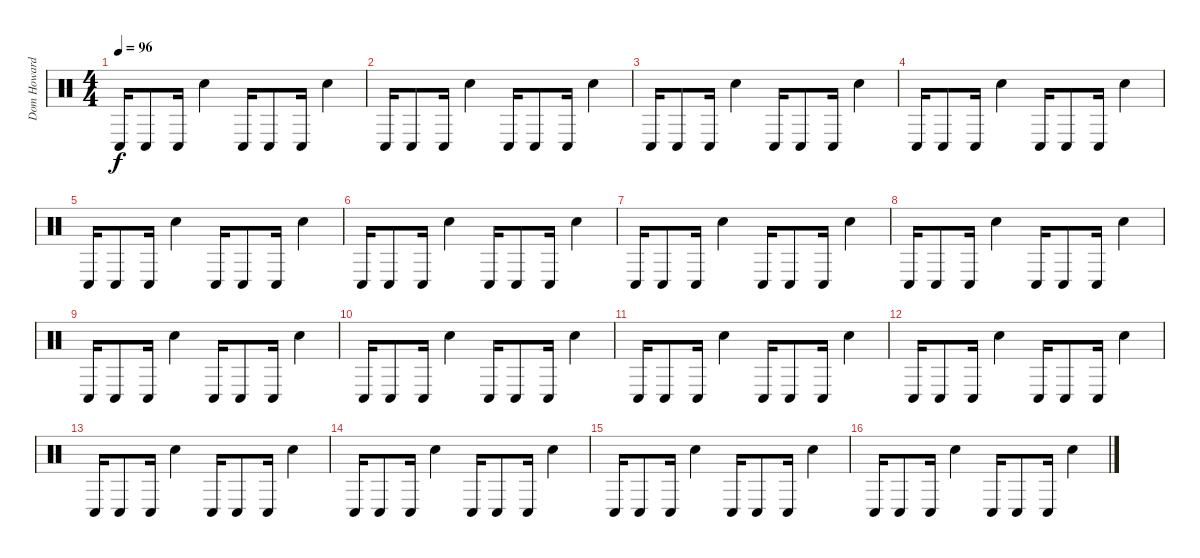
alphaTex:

\track ("Dom Howard" "Dom Howard") {instrument percussion}
\staff {score}
\articulation defaults
\ts (4 4)
\tempo 96
\clef neutral
\ks c "Conga low (hit)".16{dy f volume 9} "Conga low (hit)".8 "Conga low (hit)".16 "Metronome (bell)".4 "Conga low (hit)".16 "Conga low (hit)".8 "Conga low (hit)".16 "Metronome (bell)".4
|
"Conga low (hit)".16 "Conga low (hit)".8 "Conga low (hit)".16 "Metronome (bell)".4 "Conga low (hit)".16 "Conga low (hit)".8 "Conga low (hit)".16 "Metronome (bell)".4 |
"Conga low (hit)".16 "Conga low (hit)".8 "Conga low (hit)".16 "Metronome (bell)".4 "Conga low (hit)".16 "Conga low (hit)".8 "Conga low (hit)".16 "Metronome (bell)".4 |
"Conga low (hit)".16 "Conga low (hit)".8 "Conga low (hit)".16 "Metronome (bell)".4 "Conga low (hit)".16 "Conga low (hit)".8 "Conga low (hit)".16 "Metronome (bell)".4 |
"Conga low (hit)".16 "Conga low (hit)".8 "Conga low (hit)".16 "Metronome (bell)".4 "Conga low (hit)".16 "Conga low (hit)".8 "Conga low (hit)".16 "Metronome (bell)".4 |
"Conga low (hit)".16 "Conga low (hit)".8 "Conga low (hit)".16 "Metronome (bell)".4 "Conga low (hit)".16 "Conga low (hit)".8 "Conga low (hit)".16 "Metronome (bell)".4 |
"Conga low (hit)".16 "Conga low (hit)".8 "Conga low (hit)".16 "Metronome (bell)".4 "Conga low (hit)".16 "Conga low (hit)".8 "Conga low (hit)".16 "Metronome (bell)".4 |
"Conga low (hit)".16 "Conga low (hit)".8 "Conga low (hit)".16 "Metronome (bell)".4 "Conga low (hit)".16 "Conga low (hit)".8 "Conga low (hit)".16 "Metronome (bell)".4 |
"Conga low (hit)".16 "Conga low (hit)".8 "Conga low (hit)".16 "Metronome (bell)".4 "Conga low (hit)".16 "Conga low (hit)".8 "Conga low (hit)".16 "Metronome (bell)".4 |
"Conga low (hit)".16 "Conga low (hit)".8 "Conga low (hit)".16 "Metronome (bell)".4 "Conga low (hit)".16 "Conga low (hit)".8 "Conga low (hit)".16 "Metronome (bell)".4 |
"Conga low (hit)".16 "Conga low (hit)".8 "Conga low (hit)".16 "Metronome (bell)".4 "Conga low (hit)".16 "Conga low (hit)".8 "Conga low (hit)".16 "Metronome (bell)".4 |
"Conga low (hit)".16 "Conga low (hit)".8 "Conga low (hit)".16 "Metronome (bell)".4 "Conga low (hit)".16 "Conga low (hit)".8 "Conga low (hit)".16 "Metronome (bell)".4 |
"Conga low (hit)".16 "Conga low (hit)".8 "Conga low (hit)".16 "Metronome (bell)".4 "Conga low (hit)".16 "Conga low (hit)".8 "Conga low (hit)".16 "Metronome (bell)".4 |
"Conga low (hit)".16 "Conga low (hit)".8 "Conga low (hit)".16 "Metronome (bell)".4 "Conga low (hit)".16 "Conga low (hit)".8 "Conga low (hit)".16 "Metronome (bell)".4 |
"Conga low (hit)".16 "Conga low (hit)".8 "Conga low (hit)".16 "Metronome (bell)".4 "Conga low (hit)".16 "Conga low (hit)".8 "Conga low (hit)".16 "Metronome (bell)".4 |
"Conga low (hit)".16 "Conga low (hit)".8 "Conga low (hit)".16 "Metronome (bell)".4 "Conga low (hit)".16 "Conga low (hit)".8 "Conga low (hit)".16 "Metronome (bell)".4
